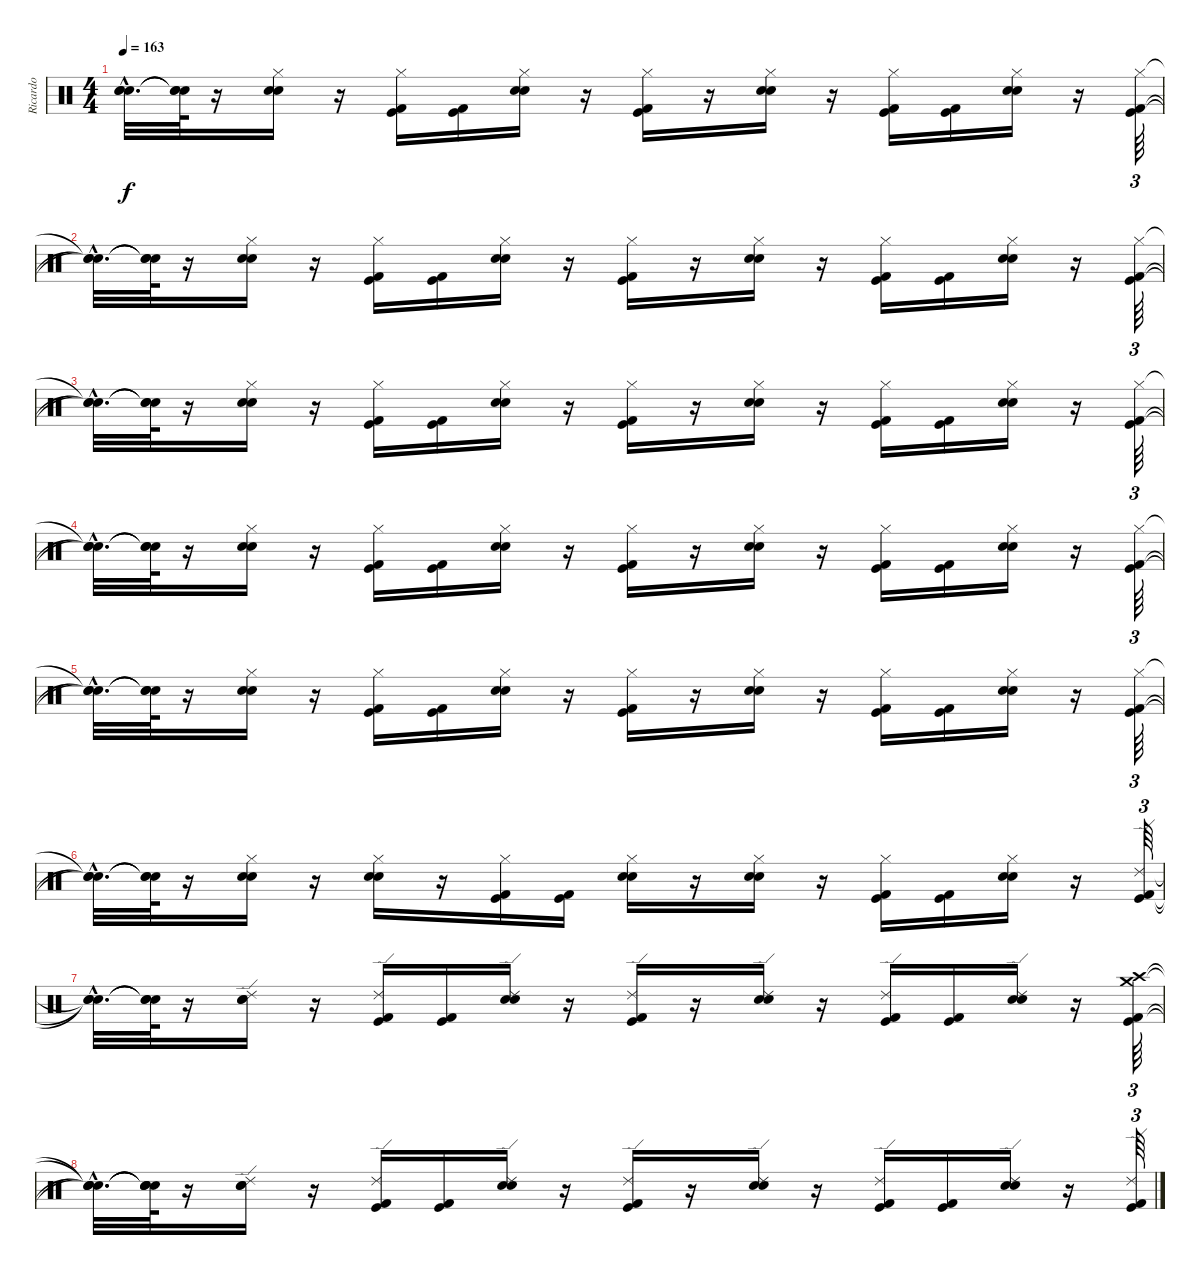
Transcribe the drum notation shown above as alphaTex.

\track ("Ricardo" "Ricardo") {instrument percussion}
\staff {score}
\articulation defaults
\ts (4 4)
\tempo 163
\clef neutral
\ks c
("Snare (hit)"{hac t} "Snare (hit)"{hac t} "Snare (hit)"{hac t}).32{d dy f} ("Snare (hit)"{t} "Snare (hit)"{t} "Snare (hit)"{t}).64 r.16 ("Hi-Hat (closed)" "Electric Snare (hit)" "Snare (hit) 2").16 r.16 ("Kick (hit)" "Kick (hit) 2" "Hi-Hat (closed)").16 ("Kick (hit)" "Kick (hit) 2").16 ("Electric Snare (hit)" "Snare (hit) 2" "Hi-Hat (closed)").16 r.16 ("Kick (hit)" "Kick (hit) 2" "Hi-Hat (closed)").16 r.16 ("Electric Snare (hit)" "Snare (hit) 2" "Hi-Hat (closed)").16 r.16 ("Kick (hit) 2" "Kick (hit)" "Hi-Hat (closed)").16 ("Kick (hit) 2" "Kick (hit)").16 ("Electric Snare (hit)" "Snare (hit) 2" "Hi-Hat (closed)").16 r.16 ("Hi-Hat (closed)" "Kick (hit) 2" "Kick (hit)").64{tu (3 2)} |
("Snare (hit)"{hac t} "Snare (hit)"{hac t} "Snare (hit)"{hac t}).32{d} ("Snare (hit)"{t} "Snare (hit)"{t} "Snare (hit)"{t}).64 r.16 ("Hi-Hat (closed)" "Electric Snare (hit)" "Snare (hit) 2").16 r.16 ("Kick (hit)" "Kick (hit) 2" "Hi-Hat (closed)").16 ("Kick (hit)" "Kick (hit) 2").16 ("Electric Snare (hit)" "Snare (hit) 2" "Hi-Hat (closed)").16 r.16 ("Kick (hit)" "Kick (hit) 2" "Hi-Hat (closed)").16 r.16 ("Electric Snare (hit)" "Snare (hit) 2" "Hi-Hat (closed)").16 r.16 ("Kick (hit) 2" "Kick (hit)" "Hi-Hat (closed)").16 ("Kick (hit) 2" "Kick (hit)").16 ("Electric Snare (hit)" "Snare (hit) 2" "Hi-Hat (closed)").16 r.16 ("Hi-Hat (closed)" "Kick (hit) 2" "Kick (hit)").64{tu (3 2)} |
("Snare (hit)"{hac t} "Snare (hit)"{hac t} "Snare (hit)"{hac t}).32{d} ("Snare (hit)"{t} "Snare (hit)"{t} "Snare (hit)"{t}).64 r.16 ("Hi-Hat (closed)" "Electric Snare (hit)" "Snare (hit) 2").16 r.16 ("Kick (hit)" "Kick (hit) 2" "Hi-Hat (closed)").16 ("Kick (hit)" "Kick (hit) 2").16 ("Electric Snare (hit)" "Snare (hit) 2" "Hi-Hat (closed)").16 r.16 ("Kick (hit)" "Kick (hit) 2" "Hi-Hat (closed)").16 r.16 ("Electric Snare (hit)" "Snare (hit) 2" "Hi-Hat (closed)").16 r.16 ("Kick (hit) 2" "Kick (hit)" "Hi-Hat (closed)").16 ("Kick (hit) 2" "Kick (hit)").16 ("Electric Snare (hit)" "Snare (hit) 2" "Hi-Hat (closed)").16 r.16 ("Hi-Hat (closed)" "Kick (hit) 2" "Kick (hit)").64{tu (3 2)} |
("Snare (hit)"{hac t} "Snare (hit)"{hac t} "Snare (hit)"{hac t}).32{d} ("Snare (hit)"{t} "Snare (hit)"{t} "Snare (hit)"{t}).64 r.16 ("Hi-Hat (closed)" "Electric Snare (hit)" "Snare (hit) 2").16 r.16 ("Kick (hit)" "Kick (hit) 2" "Hi-Hat (closed)").16 ("Kick (hit)" "Kick (hit) 2").16 ("Electric Snare (hit)" "Snare (hit) 2" "Hi-Hat (closed)").16 r.16 ("Kick (hit)" "Kick (hit) 2" "Hi-Hat (closed)").16 r.16 ("Electric Snare (hit)" "Snare (hit) 2" "Hi-Hat (closed)").16 r.16 ("Kick (hit) 2" "Kick (hit)" "Hi-Hat (closed)").16 ("Kick (hit) 2" "Kick (hit)").16 ("Electric Snare (hit)" "Snare (hit) 2" "Hi-Hat (closed)").16 r.16 ("Hi-Hat (closed)" "Kick (hit) 2" "Kick (hit)").64{tu (3 2)} |
("Snare (hit)"{hac t} "Snare (hit)"{hac t} "Snare (hit)"{hac t}).32{d} ("Snare (hit)"{t} "Snare (hit)"{t} "Snare (hit)"{t}).64 r.16 ("Hi-Hat (closed)" "Electric Snare (hit)" "Snare (hit) 2").16 r.16 ("Kick (hit)" "Kick (hit) 2" "Hi-Hat (closed)").16 ("Kick (hit)" "Kick (hit) 2").16 ("Electric Snare (hit)" "Snare (hit) 2" "Hi-Hat (closed)").16 r.16 ("Kick (hit)" "Kick (hit) 2" "Hi-Hat (closed)").16 r.16 ("Electric Snare (hit)" "Snare (hit) 2" "Hi-Hat (closed)").16 r.16 ("Kick (hit) 2" "Kick (hit)" "Hi-Hat (closed)").16 ("Kick (hit) 2" "Kick (hit)").16 ("Electric Snare (hit)" "Snare (hit) 2" "Hi-Hat (closed)").16 r.16 ("Hi-Hat (closed)" "Kick (hit) 2" "Kick (hit)").64{tu (3 2)} |
("Snare (hit)"{hac t} "Snare (hit)"{hac t} "Snare (hit)"{hac t}).32{d} ("Snare (hit)"{t} "Snare (hit)"{t} "Snare (hit)"{t}).64 r.16 ("Hi-Hat (closed)" "Electric Snare (hit)" "Snare (hit) 2").16 r.16 ("Electric Snare (hit)" "Snare (hit) 2" "Hi-Hat (closed)").16 r.16 ("Kick (hit) 2" "Kick (hit)" "Hi-Hat (closed)").16 ("Kick (hit) 2" "Kick (hit)").16 ("Electric Snare (hit)" "Snare (hit) 2" "Hi-Hat (closed)").16 r.16 ("Electric Snare (hit)" "Snare (hit) 2" "Hi-Hat (closed)").16 r.16 ("Kick (hit) 2" "Kick (hit)" "Hi-Hat (closed)").16 ("Kick (hit) 2" "Kick (hit)").16 ("Electric Snare (hit)" "Snare (hit) 2" "Hi-Hat (closed)").16 r.16 ("Ride (edge) 2" "Kick (hit) 2" "Kick (hit)").64{tu (3 2)} |
("Snare (hit)"{hac t} "Snare (hit)"{hac t} "Snare (hit)"{hac t}).32{d} ("Snare (hit)"{t} "Snare (hit)"{t} "Snare (hit)"{t}).64 r.16 ("Ride (edge) 2" "Electric Snare (hit)" "Snare (hit) 2").16 r.16 ("Ride (edge) 2" "Kick (hit)" "Kick (hit) 2").16 ("Kick (hit)" "Kick (hit) 2").16 ("Ride (edge) 2" "Electric Snare (hit)" "Snare (hit) 2").16 r.16 ("Ride (edge) 2" "Kick (hit)" "Kick (hit) 2").16 r.16 ("Ride (edge) 2" "Electric Snare (hit)" "Snare (hit) 2").16 r.16 ("Ride (edge) 2" "Kick (hit) 2" "Kick (hit)").16 ("Kick (hit) 2" "Kick (hit)").16 ("Ride (edge) 2" "Electric Snare (hit)" "Snare (hit) 2").16 r.16 ("Crash high (hit)" "Crash medium (hit)" "Kick (hit) 2" "Kick (hit)").64{tu (3 2)} |
("Snare (hit)"{hac t} "Snare (hit)"{hac t} "Snare (hit)"{hac t} "Snare (hit)"{hac t}).32{d} ("Snare (hit)"{t} "Snare (hit)"{t} "Snare (hit)"{t} "Snare (hit)"{t}).64 r.16 ("Ride (edge) 2" "Electric Snare (hit)" "Snare (hit) 2").16 r.16 ("Ride (edge) 2" "Kick (hit)" "Kick (hit) 2").16 ("Kick (hit)" "Kick (hit) 2").16 ("Ride (edge) 2" "Electric Snare (hit)" "Snare (hit) 2").16 r.16 ("Ride (edge) 2" "Kick (hit)" "Kick (hit) 2").16 r.16 ("Ride (edge) 2" "Electric Snare (hit)" "Snare (hit) 2").16 r.16 ("Ride (edge) 2" "Kick (hit) 2" "Kick (hit)").16 ("Kick (hit) 2" "Kick (hit)").16 ("Ride (edge) 2" "Electric Snare (hit)" "Snare (hit) 2").16 r.16 ("Ride (edge) 2" "Kick (hit) 2" "Kick (hit)").64{tu (3 2)}
